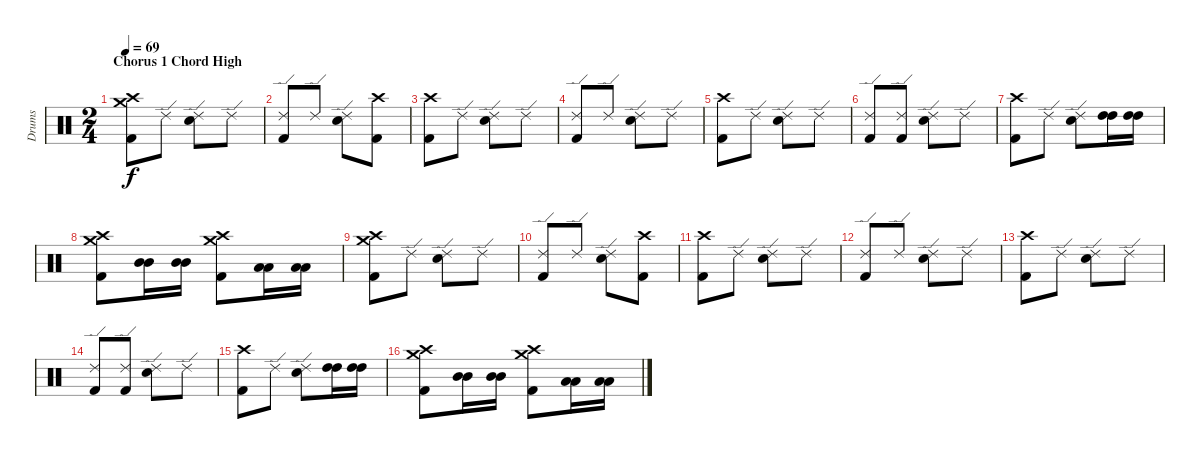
\track ("Drums" "Drums") {instrument percussion}
\staff {score}
\articulation defaults
\ts (2 4)
\section ("" "Chorus 1 Chord High")
\tempo 69
\clef neutral
\ks c
("Kick (hit) 2" "Crash high (hit)" "Crash medium (hit)").8{dy f} "Ride (edge) 2".8 ("Electric Snare (hit)" "Ride (edge) 2").8 "Ride (edge) 2".8 |
("Kick (hit) 2" "Ride (edge) 2").8 "Ride (edge) 2".8 ("Electric Snare (hit)" "Ride (edge) 2").8 ("Kick (hit) 2" "Crash high (hit)").8 |
("Kick (hit) 2" "Crash high (hit)").8 "Ride (edge) 2".8 ("Electric Snare (hit)" "Ride (edge) 2").8 "Ride (edge) 2".8 |
("Kick (hit) 2" "Ride (edge) 2").8 "Ride (edge) 2".8 ("Electric Snare (hit)" "Ride (edge) 2").8 "Ride (edge) 2".8 |
("Kick (hit) 2" "Crash high (hit)").8 "Ride (edge) 2".8 ("Electric Snare (hit)" "Ride (edge) 2").8 "Ride (edge) 2".8 |
("Kick (hit) 2" "Ride (edge) 2").8 ("Kick (hit) 2" "Ride (edge) 2").8 ("Electric Snare (hit)" "Ride (edge) 2").8 "Ride (edge) 2".8 |
("Kick (hit) 2" "Crash high (hit)").8 "Ride (edge) 2".8 ("Electric Snare (hit)" "Ride (edge) 2").8 ("High Tom (hit)" "High Tom (hit)").16 ("High Tom (hit)" "High Tom (hit)").16 |
("Kick (hit) 2" "Crash high (hit)" "Crash medium (hit)").8 ("Mid Tom (hit)" "Mid Tom (hit)").16 ("Mid Tom (hit)" "Mid Tom (hit)").16 ("Kick (hit) 2" "Crash high (hit)" "Crash medium (hit)").8 ("Low Tom (hit)" "Low Tom (hit)").16 ("Low Tom (hit)" "Low Tom (hit)").16 |
("Kick (hit) 2" "Crash high (hit)" "Crash medium (hit)").8 "Ride (edge) 2".8 ("Electric Snare (hit)" "Ride (edge) 2").8 "Ride (edge) 2".8 |
("Kick (hit) 2" "Ride (edge) 2").8 "Ride (edge) 2".8 ("Electric Snare (hit)" "Ride (edge) 2").8 ("Kick (hit) 2" "Crash high (hit)").8 |
("Kick (hit) 2" "Crash high (hit)").8 "Ride (edge) 2".8 ("Electric Snare (hit)" "Ride (edge) 2").8 "Ride (edge) 2".8 |
("Kick (hit) 2" "Ride (edge) 2").8 "Ride (edge) 2".8 ("Electric Snare (hit)" "Ride (edge) 2").8 "Ride (edge) 2".8 |
("Kick (hit) 2" "Crash high (hit)").8 "Ride (edge) 2".8 ("Electric Snare (hit)" "Ride (edge) 2").8 "Ride (edge) 2".8 |
("Kick (hit) 2" "Ride (edge) 2").8 ("Kick (hit) 2" "Ride (edge) 2").8 ("Electric Snare (hit)" "Ride (edge) 2").8 "Ride (edge) 2".8 |
("Kick (hit) 2" "Crash high (hit)").8 "Ride (edge) 2".8 ("Electric Snare (hit)" "Ride (edge) 2").8 ("High Tom (hit)" "High Tom (hit)").16 ("High Tom (hit)" "High Tom (hit)").16 |
("Kick (hit) 2" "Crash high (hit)" "Crash medium (hit)").8 ("Mid Tom (hit)" "Mid Tom (hit)").16 ("Mid Tom (hit)" "Mid Tom (hit)").16 ("Kick (hit) 2" "Crash high (hit)" "Crash medium (hit)").8 ("Low Tom (hit)" "Low Tom (hit)").16 ("Low Tom (hit)" "Low Tom (hit)").16
